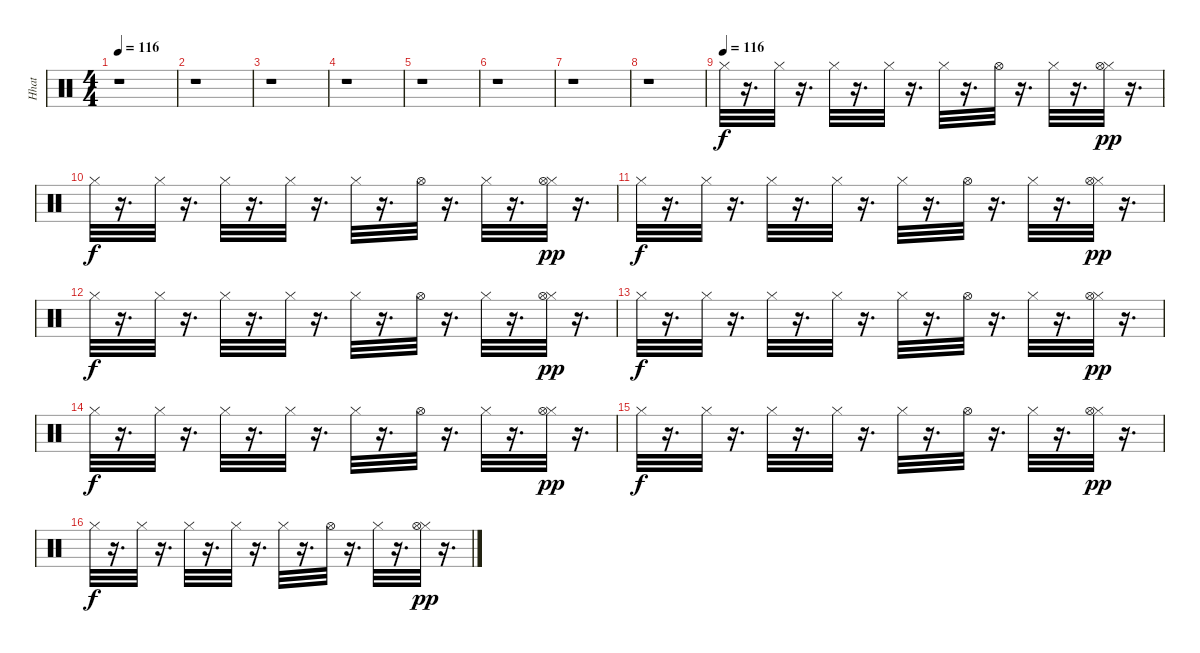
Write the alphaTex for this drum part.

\track ("Hhat" "Hhat") {instrument percussion}
\staff {score}
\articulation defaults
\ts (4 4)
\tempo 116
\clef neutral
\ks c
r.1{dy pp} |
r.1 |
r.1 |
r.1 |
r.1 |
r.1 |
r.1 |
r.1 |
\tempo (116)
"Hi-Hat (closed)".32{dy f} r.16{d} "Hi-Hat (closed)".32 r.16{d} "Hi-Hat (closed)".32 r.16{d} "Hi-Hat (closed)".32 r.16{d} "Hi-Hat (closed)".32 r.16{d} "Hi-Hat (open)".32 r.16{d} "Hi-Hat (closed)".32 r.16{d} ("Hi-Hat (closed)" "Hi-Hat (open)").32{dy pp} r.16{d} |
"Hi-Hat (closed)".32{dy f} r.16{d} "Hi-Hat (closed)".32 r.16{d} "Hi-Hat (closed)".32 r.16{d} "Hi-Hat (closed)".32 r.16{d} "Hi-Hat (closed)".32 r.16{d} "Hi-Hat (open)".32 r.16{d} "Hi-Hat (closed)".32 r.16{d} ("Hi-Hat (closed)" "Hi-Hat (open)").32{dy pp} r.16{d} |
"Hi-Hat (closed)".32{dy f} r.16{d} "Hi-Hat (closed)".32 r.16{d} "Hi-Hat (closed)".32 r.16{d} "Hi-Hat (closed)".32 r.16{d} "Hi-Hat (closed)".32 r.16{d} "Hi-Hat (open)".32 r.16{d} "Hi-Hat (closed)".32 r.16{d} ("Hi-Hat (closed)" "Hi-Hat (open)").32{dy pp} r.16{d} |
"Hi-Hat (closed)".32{dy f} r.16{d} "Hi-Hat (closed)".32 r.16{d} "Hi-Hat (closed)".32 r.16{d} "Hi-Hat (closed)".32 r.16{d} "Hi-Hat (closed)".32 r.16{d} "Hi-Hat (open)".32 r.16{d} "Hi-Hat (closed)".32 r.16{d} ("Hi-Hat (closed)" "Hi-Hat (open)").32{dy pp} r.16{d} |
"Hi-Hat (closed)".32{dy f} r.16{d} "Hi-Hat (closed)".32 r.16{d} "Hi-Hat (closed)".32 r.16{d} "Hi-Hat (closed)".32 r.16{d} "Hi-Hat (closed)".32 r.16{d} "Hi-Hat (open)".32 r.16{d} "Hi-Hat (closed)".32 r.16{d} ("Hi-Hat (closed)" "Hi-Hat (open)").32{dy pp} r.16{d} |
"Hi-Hat (closed)".32{dy f} r.16{d} "Hi-Hat (closed)".32 r.16{d} "Hi-Hat (closed)".32 r.16{d} "Hi-Hat (closed)".32 r.16{d} "Hi-Hat (closed)".32 r.16{d} "Hi-Hat (open)".32 r.16{d} "Hi-Hat (closed)".32 r.16{d} ("Hi-Hat (closed)" "Hi-Hat (open)").32{dy pp} r.16{d} |
"Hi-Hat (closed)".32{dy f} r.16{d} "Hi-Hat (closed)".32 r.16{d} "Hi-Hat (closed)".32 r.16{d} "Hi-Hat (closed)".32 r.16{d} "Hi-Hat (closed)".32 r.16{d} "Hi-Hat (open)".32 r.16{d} "Hi-Hat (closed)".32 r.16{d} ("Hi-Hat (closed)" "Hi-Hat (open)").32{dy pp} r.16{d} |
"Hi-Hat (closed)".32{dy f} r.16{d} "Hi-Hat (closed)".32 r.16{d} "Hi-Hat (closed)".32 r.16{d} "Hi-Hat (closed)".32 r.16{d} "Hi-Hat (closed)".32 r.16{d} "Hi-Hat (open)".32 r.16{d} "Hi-Hat (closed)".32 r.16{d} ("Hi-Hat (closed)" "Hi-Hat (open)").32{dy pp} r.16{d}
